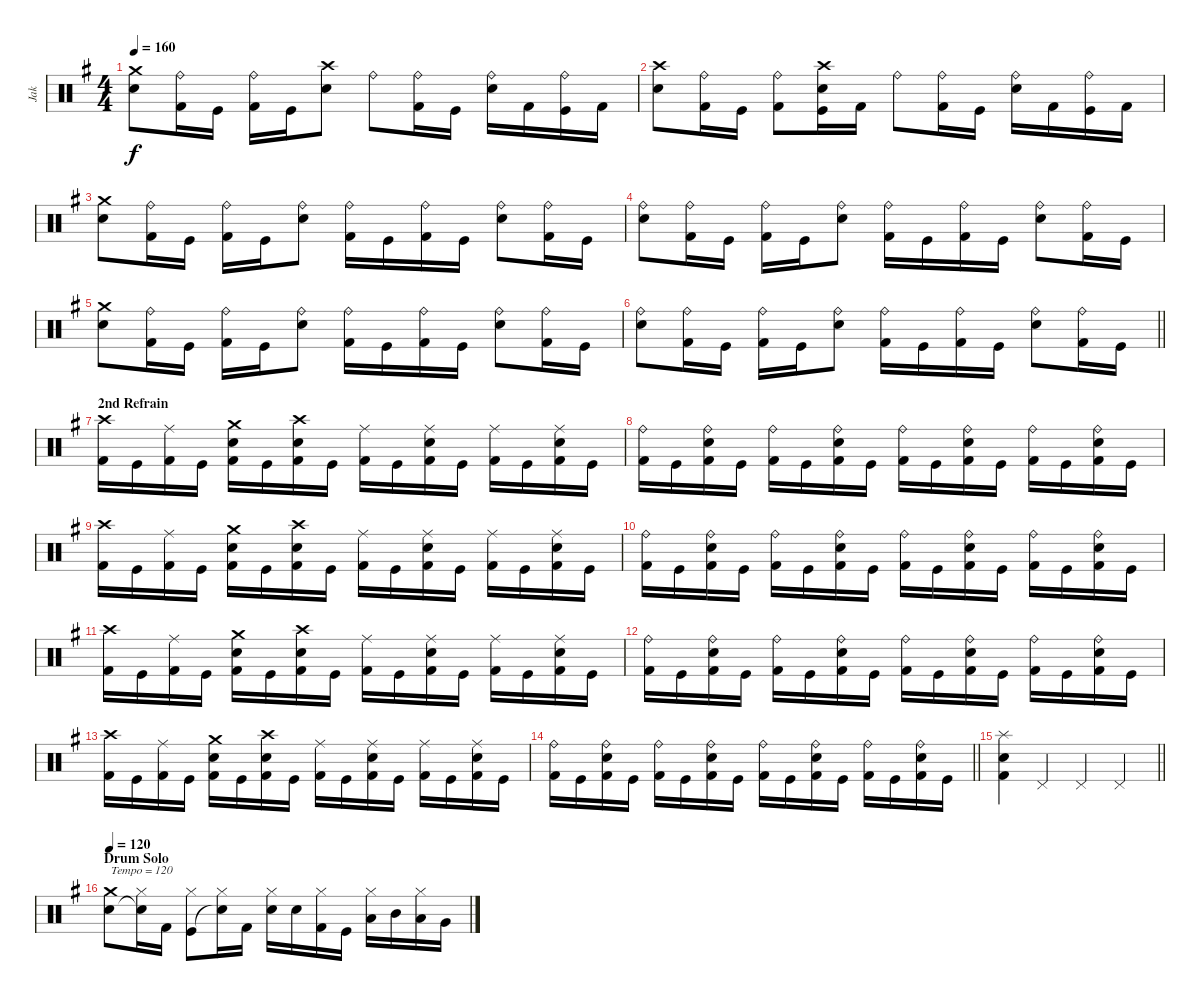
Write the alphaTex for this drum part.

\track ("Jak" "Jak") {instrument percussion}
\staff {score}
\articulation defaults
\ts (4 4)
\tempo 160
\clef neutral
\ks eminor
("Crash medium (hit)" "Snare (hit) 2").8{dy f} ("Ride (bell)" "Kick (hit) 2").16 "Kick (hit)".16 ("Ride (bell)" "Kick (hit) 2").16 "Kick (hit)".16 ("Crash high (hit)" "Snare (hit) 2").8 "Ride (bell)".8 ("Ride (bell)" "Kick (hit) 2").16 "Kick (hit)".16 ("Ride (bell)" "Snare (hit) 2").16 "Kick (hit) 2".16 ("Ride (bell)" "Kick (hit)").16 "Kick (hit) 2".16 |
("Crash high (hit)" "Snare (hit) 2").8 ("Ride (bell)" "Kick (hit) 2").16 "Kick (hit)".16 ("Ride (bell)" "Kick (hit) 2").8 ("Crash high (hit)" "Snare (hit) 2" "Kick (hit)").16 "Kick (hit) 2".16 "Ride (bell)".8 ("Ride (bell)" "Kick (hit) 2").16 "Kick (hit)".16 ("Ride (bell)" "Snare (hit) 2").16 "Kick (hit) 2".16 ("Ride (bell)" "Kick (hit)").16 "Kick (hit) 2".16 |
("Crash medium (hit)" "Snare (hit) 2").8 ("Ride (bell)" "Kick (hit) 2").16 "Kick (hit)".16 ("Ride (bell)" "Kick (hit) 2").16 "Kick (hit)".16 ("Ride (bell)" "Snare (hit) 2").8 ("Ride (bell)" "Kick (hit) 2").16 "Kick (hit)".16 ("Ride (bell)" "Kick (hit) 2").16 "Kick (hit)".16 ("Ride (bell)" "Snare (hit) 2").8 ("Ride (bell)" "Kick (hit) 2").16 "Kick (hit)".16 |
("Ride (bell)" "Snare (hit) 2").8 ("Ride (bell)" "Kick (hit) 2").16 "Kick (hit)".16 ("Ride (bell)" "Kick (hit) 2").16 "Kick (hit)".16 ("Ride (bell)" "Snare (hit) 2").8 ("Ride (bell)" "Kick (hit) 2").16 "Kick (hit)".16 ("Ride (bell)" "Kick (hit) 2").16 "Kick (hit)".16 ("Ride (bell)" "Snare (hit) 2").8 ("Ride (bell)" "Kick (hit) 2").16 "Kick (hit)".16 |
("Crash medium (hit)" "Snare (hit) 2").8 ("Ride (bell)" "Kick (hit) 2").16 "Kick (hit)".16 ("Ride (bell)" "Kick (hit) 2").16 "Kick (hit)".16 ("Ride (bell)" "Snare (hit) 2").8 ("Ride (bell)" "Kick (hit) 2").16 "Kick (hit)".16 ("Ride (bell)" "Kick (hit) 2").16 "Kick (hit)".16 ("Ride (bell)" "Snare (hit) 2").8 ("Ride (bell)" "Kick (hit) 2").16 "Kick (hit)".16 |
\barLineRight lightlight
("Ride (bell)" "Snare (hit) 2").8 ("Ride (bell)" "Kick (hit) 2").16 "Kick (hit)".16 ("Ride (bell)" "Kick (hit) 2").16 "Kick (hit)".16 ("Ride (bell)" "Snare (hit) 2").8 ("Ride (bell)" "Kick (hit) 2").16 "Kick (hit)".16 ("Ride (bell)" "Kick (hit) 2").16 "Kick (hit)".16 ("Ride (bell)" "Snare (hit) 2").8 ("Ride (bell)" "Kick (hit) 2").16 "Kick (hit)".16 |
\section ("" "2nd Refrain")
("Crash high (hit)" "Kick (hit) 2").16 "Kick (hit)".16 ("Ride (middle)" "Kick (hit) 2").16 "Kick (hit)".16 ("Crash medium (hit)" "Snare (hit) 2" "Kick (hit) 2").16 "Kick (hit)".16 ("Crash high (hit)" "Snare (hit) 2" "Kick (hit) 2").16 "Kick (hit)".16 ("Ride (middle)" "Kick (hit) 2").16 "Kick (hit)".16 ("Ride (middle)" "Snare (hit) 2" "Kick (hit) 2").16 "Kick (hit)".16 ("Ride (middle)" "Kick (hit) 2").16 "Kick (hit)".16 ("Ride (middle)" "Snare (hit) 2" "Kick (hit) 2").16 "Kick (hit)".16 |
("Ride (bell)" "Kick (hit) 2").16 "Kick (hit)".16 ("Ride (bell)" "Snare (hit) 2" "Kick (hit) 2").16 "Kick (hit)".16 ("Ride (bell)" "Kick (hit) 2").16 "Kick (hit)".16 ("Ride (bell)" "Snare (hit) 2" "Kick (hit) 2").16 "Kick (hit)".16 ("Ride (bell)" "Kick (hit) 2").16 "Kick (hit)".16 ("Ride (bell)" "Snare (hit) 2" "Kick (hit) 2").16 "Kick (hit)".16 ("Ride (bell)" "Kick (hit) 2").16 "Kick (hit)".16 ("Ride (bell)" "Snare (hit) 2" "Kick (hit) 2").16 "Kick (hit)".16 |
("Crash high (hit)" "Kick (hit) 2").16 "Kick (hit)".16 ("Ride (middle)" "Kick (hit) 2").16 "Kick (hit)".16 ("Crash medium (hit)" "Snare (hit) 2" "Kick (hit) 2").16 "Kick (hit)".16 ("Crash high (hit)" "Snare (hit) 2" "Kick (hit) 2").16 "Kick (hit)".16 ("Ride (middle)" "Kick (hit) 2").16 "Kick (hit)".16 ("Ride (middle)" "Snare (hit) 2" "Kick (hit) 2").16 "Kick (hit)".16 ("Ride (middle)" "Kick (hit) 2").16 "Kick (hit)".16 ("Ride (middle)" "Snare (hit) 2" "Kick (hit) 2").16 "Kick (hit)".16 |
("Ride (bell)" "Kick (hit) 2").16 "Kick (hit)".16 ("Ride (bell)" "Snare (hit) 2" "Kick (hit) 2").16 "Kick (hit)".16 ("Ride (bell)" "Kick (hit) 2").16 "Kick (hit)".16 ("Ride (bell)" "Snare (hit) 2" "Kick (hit) 2").16 "Kick (hit)".16 ("Ride (bell)" "Kick (hit) 2").16 "Kick (hit)".16 ("Ride (bell)" "Snare (hit) 2" "Kick (hit) 2").16 "Kick (hit)".16 ("Ride (bell)" "Kick (hit) 2").16 "Kick (hit)".16 ("Ride (bell)" "Snare (hit) 2" "Kick (hit) 2").16 "Kick (hit)".16 |
("Crash high (hit)" "Kick (hit) 2").16 "Kick (hit)".16 ("Ride (middle)" "Kick (hit) 2").16 "Kick (hit)".16 ("Crash medium (hit)" "Snare (hit) 2" "Kick (hit) 2").16 "Kick (hit)".16 ("Crash high (hit)" "Snare (hit) 2" "Kick (hit) 2").16 "Kick (hit)".16 ("Ride (middle)" "Kick (hit) 2").16 "Kick (hit)".16 ("Ride (middle)" "Snare (hit) 2" "Kick (hit) 2").16 "Kick (hit)".16 ("Ride (middle)" "Kick (hit) 2").16 "Kick (hit)".16 ("Ride (middle)" "Snare (hit) 2" "Kick (hit) 2").16 "Kick (hit)".16 |
("Ride (bell)" "Kick (hit) 2").16 "Kick (hit)".16 ("Ride (bell)" "Snare (hit) 2" "Kick (hit) 2").16 "Kick (hit)".16 ("Ride (bell)" "Kick (hit) 2").16 "Kick (hit)".16 ("Ride (bell)" "Snare (hit) 2" "Kick (hit) 2").16 "Kick (hit)".16 ("Ride (bell)" "Kick (hit) 2").16 "Kick (hit)".16 ("Ride (bell)" "Snare (hit) 2" "Kick (hit) 2").16 "Kick (hit)".16 ("Ride (bell)" "Kick (hit) 2").16 "Kick (hit)".16 ("Ride (bell)" "Snare (hit) 2" "Kick (hit) 2").16 "Kick (hit)".16 |
("Crash high (hit)" "Kick (hit) 2").16 "Kick (hit)".16 ("Ride (middle)" "Kick (hit) 2").16 "Kick (hit)".16 ("Crash medium (hit)" "Snare (hit) 2" "Kick (hit) 2").16 "Kick (hit)".16 ("Crash high (hit)" "Snare (hit) 2" "Kick (hit) 2").16 "Kick (hit)".16 ("Ride (middle)" "Kick (hit) 2").16 "Kick (hit)".16 ("Ride (middle)" "Snare (hit) 2" "Kick (hit) 2").16 "Kick (hit)".16 ("Ride (middle)" "Kick (hit) 2").16 "Kick (hit)".16 ("Ride (middle)" "Snare (hit) 2" "Kick (hit) 2").16 "Kick (hit)".16 |
\barLineRight lightlight
("Ride (bell)" "Kick (hit) 2").16 "Kick (hit)".16 ("Ride (bell)" "Snare (hit) 2" "Kick (hit) 2").16 "Kick (hit)".16 ("Ride (bell)" "Kick (hit) 2").16 "Kick (hit)".16 ("Ride (bell)" "Snare (hit) 2" "Kick (hit) 2").16 "Kick (hit)".16 ("Ride (bell)" "Kick (hit) 2").16 "Kick (hit)".16 ("Ride (bell)" "Snare (hit) 2" "Kick (hit) 2").16 "Kick (hit)".16 ("Ride (bell)" "Kick (hit) 2").16 "Kick (hit)".16 ("Ride (bell)" "Snare (hit) 2" "Kick (hit) 2").16 "Kick (hit)".16 |
\barLineRight lightlight
("Splash (hit)" "Snare (hit) 2" "Kick (hit) 2").4 "Pedal Hi-Hat (hit)".4 "Pedal Hi-Hat (hit)".4 "Pedal Hi-Hat (hit)".4 |
\section ("" "Drum Solo")
\tempo 120
("Crash medium (hit)" "Snare (hit) 2").8{txt "Tempo = 120" volume 13} ("Hi-Hat (closed)" "Snare (hit)"{t}).16 "Kick (hit) 2".16 ("Hi-Hat (closed)" "Kick (hit)").8 ("Hi-Hat (closed)" "Snare (hit)"{t}).16 "Kick (hit) 2".16 ("Hi-Hat (closed)" "Snare (hit) 2").16 "Snare (hit) 2".16 ("Hi-Hat (closed)" "Kick (hit) 2").16 "Kick (hit)".16 ("Hi-Hat (closed)" "Low Tom (hit)").16 "Mid Tom (hit)".16 ("Hi-Hat (closed)" "Low Tom (hit)").16 "Very Low Tom (hit)".16
